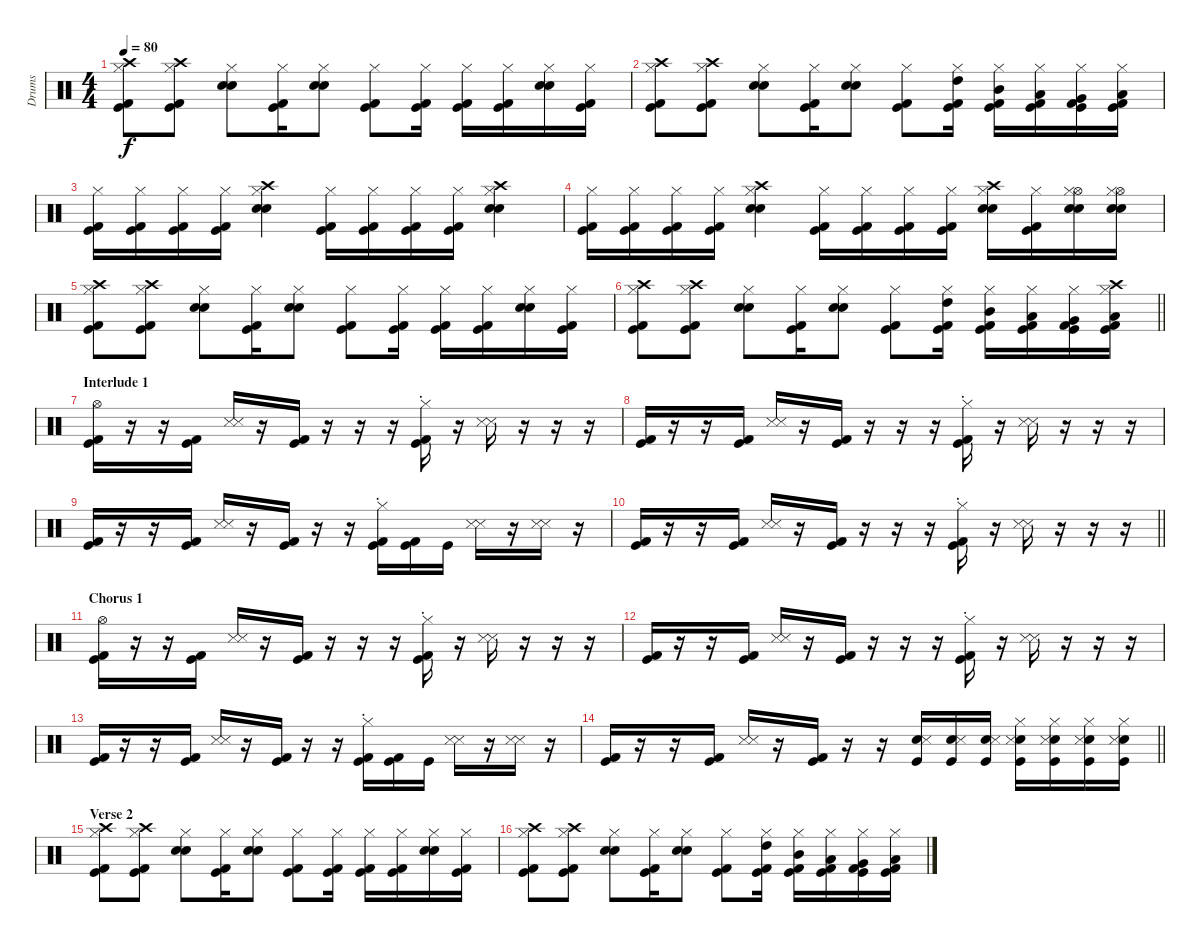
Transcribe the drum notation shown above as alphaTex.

\track ("Drums" "Drums") {instrument percussion}
\staff {score}
\articulation defaults
\ts (4 4)
\tempo 80
\clef neutral
\ks c
("Crash high (hit)" "Hi-Hat (closed)" "Kick (hit) 2" "Kick (hit)").8{dy f} ("Crash high (hit)" "Hi-Hat (closed)" "Kick (hit) 2" "Kick (hit)").8 ("Hi-Hat (closed)" "Snare (hit) 2" "Electric Snare (hit)").8 ("Hi-Hat (closed)" "Kick (hit) 2" "Kick (hit)").16 ("Hi-Hat (closed)" "Snare (hit) 2" "Electric Snare (hit)").8 ("Hi-Hat (closed)" "Kick (hit) 2" "Kick (hit)").8 ("Hi-Hat (closed)" "Kick (hit) 2" "Kick (hit)").16 ("Hi-Hat (closed)" "Kick (hit) 2" "Kick (hit)").16 ("Hi-Hat (closed)" "Kick (hit) 2" "Kick (hit)").16 ("Hi-Hat (closed)" "Snare (hit) 2" "Electric Snare (hit)").16 ("Hi-Hat (closed)" "Kick (hit) 2" "Kick (hit)").16 |
("Crash high (hit)" "Hi-Hat (closed)" "Kick (hit) 2" "Kick (hit)").8 ("Crash high (hit)" "Hi-Hat (closed)" "Kick (hit) 2" "Kick (hit)").8 ("Hi-Hat (closed)" "Snare (hit) 2" "Electric Snare (hit)").8 ("Hi-Hat (closed)" "Kick (hit) 2" "Kick (hit)").16 ("Hi-Hat (closed)" "Snare (hit) 2" "Electric Snare (hit)").8 ("Hi-Hat (closed)" "Kick (hit) 2" "Kick (hit)").8 ("Hi-Hat (closed)" "High Tom (hit)" "Kick (hit) 2" "Kick (hit)").16 ("Hi-Hat (closed)" "Mid Tom (hit)" "Kick (hit) 2" "Kick (hit)").16 ("Hi-Hat (closed)" "Low Tom (hit)" "Kick (hit) 2" "Kick (hit)").16 ("Hi-Hat (closed)" "Very Low Tom (hit)" "Kick (hit) 2" "Kick (hit)").16 ("Hi-Hat (closed)" "Low Floor Tom (hit)" "Kick (hit) 2" "Kick (hit)").16 |
("Hi-Hat (closed)" "Kick (hit) 2" "Kick (hit)").16 ("Hi-Hat (closed)" "Kick (hit) 2" "Kick (hit)").16 ("Hi-Hat (closed)" "Kick (hit) 2" "Kick (hit)").16 ("Hi-Hat (closed)" "Kick (hit) 2" "Kick (hit)").16 ("Crash high (hit)" "Hi-Hat (closed)" "Snare (hit) 2" "Electric Snare (hit)").4 ("Hi-Hat (closed)" "Kick (hit) 2" "Kick (hit)").16 ("Hi-Hat (closed)" "Kick (hit) 2" "Kick (hit)").16 ("Hi-Hat (closed)" "Kick (hit) 2" "Kick (hit)").16 ("Hi-Hat (closed)" "Kick (hit) 2" "Kick (hit)").16 ("Crash high (hit)" "Hi-Hat (closed)" "Snare (hit) 2" "Electric Snare (hit)").4 |
("Hi-Hat (closed)" "Kick (hit) 2" "Kick (hit)").16 ("Hi-Hat (closed)" "Kick (hit) 2" "Kick (hit)").16 ("Hi-Hat (closed)" "Kick (hit) 2" "Kick (hit)").16 ("Hi-Hat (closed)" "Kick (hit) 2" "Kick (hit)").16 ("Crash high (hit)" "Hi-Hat (closed)" "Snare (hit) 2" "Electric Snare (hit)").4 ("Hi-Hat (closed)" "Kick (hit) 2" "Kick (hit)").16 ("Hi-Hat (closed)" "Kick (hit) 2" "Kick (hit)").16 ("Hi-Hat (closed)" "Kick (hit) 2" "Kick (hit)").16 ("Hi-Hat (closed)" "Kick (hit) 2" "Kick (hit)").16 ("Crash high (hit)" "Hi-Hat (closed)" "Snare (hit) 2" "Electric Snare (hit)").16 ("Hi-Hat (closed)" "Kick (hit) 2" "Kick (hit)").16 ("Hi-Hat (open)" "Hi-Hat (closed)" "Snare (hit) 2" "Electric Snare (hit)").16 ("Hi-Hat (open)" "Hi-Hat (closed)" "Snare (hit) 2" "Electric Snare (hit)").16 |
("Crash high (hit)" "Hi-Hat (closed)" "Kick (hit) 2" "Kick (hit)").8 ("Crash high (hit)" "Hi-Hat (closed)" "Kick (hit) 2" "Kick (hit)").8 ("Hi-Hat (closed)" "Snare (hit) 2" "Electric Snare (hit)").8 ("Hi-Hat (closed)" "Kick (hit) 2" "Kick (hit)").16 ("Hi-Hat (closed)" "Snare (hit) 2" "Electric Snare (hit)").8 ("Hi-Hat (closed)" "Kick (hit) 2" "Kick (hit)").8 ("Hi-Hat (closed)" "Kick (hit) 2" "Kick (hit)").16 ("Hi-Hat (closed)" "Kick (hit) 2" "Kick (hit)").16 ("Hi-Hat (closed)" "Kick (hit) 2" "Kick (hit)").16 ("Hi-Hat (closed)" "Snare (hit) 2" "Electric Snare (hit)").16 ("Hi-Hat (closed)" "Kick (hit) 2" "Kick (hit)").16 |
\barLineRight lightlight
("Crash high (hit)" "Hi-Hat (closed)" "Kick (hit) 2" "Kick (hit)").8 ("Crash high (hit)" "Hi-Hat (closed)" "Kick (hit) 2" "Kick (hit)").8 ("Hi-Hat (closed)" "Snare (hit) 2" "Electric Snare (hit)").8 ("Hi-Hat (closed)" "Kick (hit) 2" "Kick (hit)").16 ("Hi-Hat (closed)" "Snare (hit) 2" "Electric Snare (hit)").8 ("Hi-Hat (closed)" "Kick (hit) 2" "Kick (hit)").8 ("Hi-Hat (closed)" "High Tom (hit)" "Kick (hit) 2" "Kick (hit)").16 ("Hi-Hat (closed)" "Mid Tom (hit)" "Kick (hit) 2" "Kick (hit)").16 ("Hi-Hat (closed)" "Low Tom (hit)" "Kick (hit) 2" "Kick (hit)").16 ("Hi-Hat (closed)" "Very Low Tom (hit)" "Kick (hit) 2" "Kick (hit)").16 ("Crash high (hit)" "Hi-Hat (closed)" "Low Floor Tom (hit)" "Kick (hit) 2" "Kick (hit)").16 |
\section ("" "Interlude 1")
("Hi-Hat (open)" "Kick (hit) 2" "Kick (hit)").16 r.16 r.16 ("Kick (hit) 2" "Kick (hit)").16 ("Snare (side stick) 3" "Snare (side stick) 3").16 r.16 ("Kick (hit) 2" "Kick (hit)").16 r.16 r.16 r.16 ("Hi-Hat (closed)"{st} "Kick (hit) 2" "Kick (hit)").16 r.16 ("Snare (side stick) 3" "Snare (side stick) 3").16 r.16 r.16 r.16 |
("Kick (hit) 2" "Kick (hit)").16 r.16 r.16 ("Kick (hit) 2" "Kick (hit)").16 ("Snare (side stick) 3" "Snare (side stick) 3").16 r.16 ("Kick (hit) 2" "Kick (hit)").16 r.16 r.16 r.16 ("Hi-Hat (closed)"{st} "Kick (hit) 2" "Kick (hit)").16 r.16 ("Snare (side stick) 3" "Snare (side stick) 3").16 r.16 r.16 r.16 |
("Kick (hit) 2" "Kick (hit)").16 r.16 r.16 ("Kick (hit) 2" "Kick (hit)").16 ("Snare (side stick) 3" "Snare (side stick) 3").16 r.16 ("Kick (hit) 2" "Kick (hit)").16 r.16 r.16 ("Hi-Hat (closed)"{st} "Kick (hit) 2" "Kick (hit)").16 ("Kick (hit) 2" "Kick (hit)").16 "Kick (hit)".16 ("Snare (side stick) 3" "Snare (side stick) 3").16 r.16 ("Snare (side stick) 3" "Snare (side stick) 3").16 r.16 |
\barLineRight lightlight
("Kick (hit) 2" "Kick (hit)").16 r.16 r.16 ("Kick (hit) 2" "Kick (hit)").16 ("Snare (side stick) 3" "Snare (side stick) 3").16 r.16 ("Kick (hit) 2" "Kick (hit)").16 r.16 r.16 r.16 ("Hi-Hat (closed)"{st} "Kick (hit) 2" "Kick (hit)").16 r.16 ("Snare (side stick) 3" "Snare (side stick) 3").16 r.16 r.16 r.16 |
\section ("" "Chorus 1")
("Hi-Hat (open)" "Kick (hit) 2" "Kick (hit)").16 r.16 r.16 ("Kick (hit) 2" "Kick (hit)").16 ("Snare (side stick) 3" "Snare (side stick) 3").16 r.16 ("Kick (hit) 2" "Kick (hit)").16 r.16 r.16 r.16 ("Hi-Hat (closed)"{st} "Kick (hit) 2" "Kick (hit)").16 r.16 ("Snare (side stick) 3" "Snare (side stick) 3").16 r.16 r.16 r.16 |
("Kick (hit) 2" "Kick (hit)").16 r.16 r.16 ("Kick (hit) 2" "Kick (hit)").16 ("Snare (side stick) 3" "Snare (side stick) 3").16 r.16 ("Kick (hit) 2" "Kick (hit)").16 r.16 r.16 r.16 ("Hi-Hat (closed)"{st} "Kick (hit) 2" "Kick (hit)").16 r.16 ("Snare (side stick) 3" "Snare (side stick) 3").16 r.16 r.16 r.16 |
("Kick (hit) 2" "Kick (hit)").16 r.16 r.16 ("Kick (hit) 2" "Kick (hit)").16 ("Snare (side stick) 3" "Snare (side stick) 3").16 r.16 ("Kick (hit) 2" "Kick (hit)").16 r.16 r.16 ("Hi-Hat (closed)"{st} "Kick (hit) 2" "Kick (hit)").16 ("Kick (hit) 2" "Kick (hit)").16 "Kick (hit)".16 ("Snare (side stick) 3" "Snare (side stick) 3").16 r.16 ("Snare (side stick) 3" "Snare (side stick) 3").16 r.16 |
\barLineRight lightlight
("Kick (hit) 2" "Kick (hit)").16 r.16 r.16 ("Kick (hit) 2" "Kick (hit)").16 ("Snare (side stick) 3" "Snare (side stick) 3").16 r.16 ("Kick (hit) 2" "Kick (hit)").16 r.16 r.16 ("Snare (hit) 2" "Snare (side stick) 3" "Kick (hit)").16 ("Snare (hit) 2" "Snare (side stick) 3" "Kick (hit)").16 ("Snare (hit) 2" "Snare (side stick) 3" "Kick (hit)").16 ("Hi-Hat (closed)" "Snare (hit) 2" "Snare (side stick) 3" "Kick (hit)").16 ("Hi-Hat (closed)" "Snare (hit) 2" "Snare (side stick) 3" "Kick (hit)").16 ("Hi-Hat (closed)" "Snare (hit) 2" "Snare (side stick) 3" "Kick (hit)").16 ("Hi-Hat (closed)" "Snare (hit) 2" "Snare (side stick) 3" "Kick (hit)").16 |
\section ("" "Verse 2")
("Crash high (hit)" "Hi-Hat (closed)" "Kick (hit) 2" "Kick (hit)").8 ("Crash high (hit)" "Hi-Hat (closed)" "Kick (hit) 2" "Kick (hit)").8 ("Hi-Hat (closed)" "Snare (hit) 2" "Electric Snare (hit)").8 ("Hi-Hat (closed)" "Kick (hit) 2" "Kick (hit)").16 ("Hi-Hat (closed)" "Snare (hit) 2" "Electric Snare (hit)").8 ("Hi-Hat (closed)" "Kick (hit) 2" "Kick (hit)").8 ("Hi-Hat (closed)" "Kick (hit) 2" "Kick (hit)").16 ("Hi-Hat (closed)" "Kick (hit) 2" "Kick (hit)").16 ("Hi-Hat (closed)" "Kick (hit) 2" "Kick (hit)").16 ("Hi-Hat (closed)" "Snare (hit) 2" "Electric Snare (hit)").16 ("Hi-Hat (closed)" "Kick (hit) 2" "Kick (hit)").16 |
("Crash high (hit)" "Hi-Hat (closed)" "Kick (hit) 2" "Kick (hit)").8 ("Crash high (hit)" "Hi-Hat (closed)" "Kick (hit) 2" "Kick (hit)").8 ("Hi-Hat (closed)" "Snare (hit) 2" "Electric Snare (hit)").8 ("Hi-Hat (closed)" "Kick (hit) 2" "Kick (hit)").16 ("Hi-Hat (closed)" "Snare (hit) 2" "Electric Snare (hit)").8 ("Hi-Hat (closed)" "Kick (hit) 2" "Kick (hit)").8 ("Hi-Hat (closed)" "High Tom (hit)" "Kick (hit) 2" "Kick (hit)").16 ("Hi-Hat (closed)" "Mid Tom (hit)" "Kick (hit) 2" "Kick (hit)").16 ("Hi-Hat (closed)" "Low Tom (hit)" "Kick (hit) 2" "Kick (hit)").16 ("Hi-Hat (closed)" "Very Low Tom (hit)" "Kick (hit) 2" "Kick (hit)").16 ("Hi-Hat (closed)" "Low Floor Tom (hit)" "Kick (hit) 2" "Kick (hit)").16
